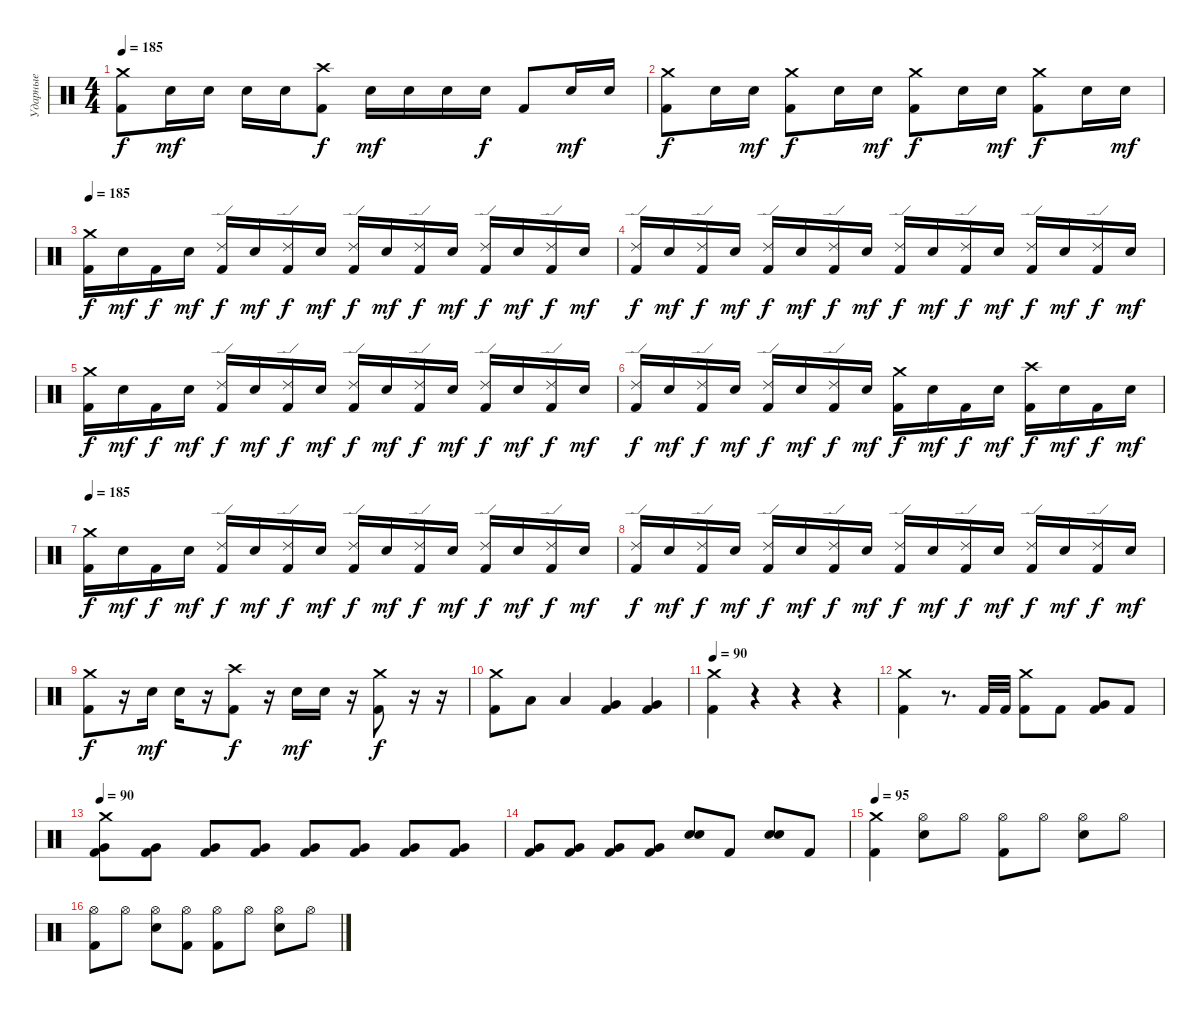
\track ("Ударные" "Ударные") {instrument percussion}
\staff {score}
\articulation defaults
\ts (4 4)
\tempo 185
\clef neutral
\ks c
("Crash medium (hit)" "Kick (hit) 2").8{dy f} "Electric Snare (hit)".16{dy mf} "Electric Snare (hit)".16 "Electric Snare (hit)".16 "Electric Snare (hit)".16 ("Crash high (hit)" "Kick (hit) 2").8{dy f} "Electric Snare (hit)".16{dy mf} "Electric Snare (hit)".16 "Electric Snare (hit)".16 "Electric Snare (hit)".16{dy f} "Kick (hit) 2".8 "Electric Snare (hit)".16{dy mf} "Electric Snare (hit)".16 |
("Crash medium (hit)" "Kick (hit) 2").8{dy f} "Electric Snare (hit)".16 "Electric Snare (hit)".16{dy mf} ("Crash medium (hit)" "Kick (hit) 2").8{dy f} "Electric Snare (hit)".16 "Electric Snare (hit)".16{dy mf} ("Crash medium (hit)" "Kick (hit) 2").8{dy f} "Electric Snare (hit)".16 "Electric Snare (hit)".16{dy mf} ("Crash medium (hit)" "Kick (hit) 2").8{dy f} "Electric Snare (hit)".16 "Electric Snare (hit)".16{dy mf} |
\tempo 185
("Crash medium (hit)" "Kick (hit) 2").16{dy f} "Electric Snare (hit)".16{dy mf} "Kick (hit) 2".16{dy f} "Electric Snare (hit)".16{dy mf} ("Ride (edge) 2" "Kick (hit) 2").16{dy f} "Electric Snare (hit)".16{dy mf} ("Ride (edge) 2" "Kick (hit) 2").16{dy f} "Electric Snare (hit)".16{dy mf} ("Ride (edge) 2" "Kick (hit) 2").16{dy f} "Electric Snare (hit)".16{dy mf} ("Ride (edge) 2" "Kick (hit) 2").16{dy f} "Electric Snare (hit)".16{dy mf} ("Ride (edge) 2" "Kick (hit) 2").16{dy f} "Electric Snare (hit)".16{dy mf} ("Ride (edge) 2" "Kick (hit) 2").16{dy f} "Electric Snare (hit)".16{dy mf} |
("Ride (edge) 2" "Kick (hit) 2").16{dy f} "Electric Snare (hit)".16{dy mf} ("Ride (edge) 2" "Kick (hit) 2").16{dy f} "Electric Snare (hit)".16{dy mf} ("Ride (edge) 2" "Kick (hit) 2").16{dy f} "Electric Snare (hit)".16{dy mf} ("Ride (edge) 2" "Kick (hit) 2").16{dy f} "Electric Snare (hit)".16{dy mf} ("Ride (edge) 2" "Kick (hit) 2").16{dy f} "Electric Snare (hit)".16{dy mf} ("Ride (edge) 2" "Kick (hit) 2").16{dy f} "Electric Snare (hit)".16{dy mf} ("Ride (edge) 2" "Kick (hit) 2").16{dy f} "Electric Snare (hit)".16{dy mf} ("Ride (edge) 2" "Kick (hit) 2").16{dy f} "Electric Snare (hit)".16{dy mf} |
("Crash medium (hit)" "Kick (hit) 2").16{dy f} "Electric Snare (hit)".16{dy mf} "Kick (hit) 2".16{dy f} "Electric Snare (hit)".16{dy mf} ("Ride (edge) 2" "Kick (hit) 2").16{dy f} "Electric Snare (hit)".16{dy mf} ("Ride (edge) 2" "Kick (hit) 2").16{dy f} "Electric Snare (hit)".16{dy mf} ("Ride (edge) 2" "Kick (hit) 2").16{dy f} "Electric Snare (hit)".16{dy mf} ("Ride (edge) 2" "Kick (hit) 2").16{dy f} "Electric Snare (hit)".16{dy mf} ("Ride (edge) 2" "Kick (hit) 2").16{dy f} "Electric Snare (hit)".16{dy mf} ("Ride (edge) 2" "Kick (hit) 2").16{dy f} "Electric Snare (hit)".16{dy mf} |
("Ride (edge) 2" "Kick (hit) 2").16{dy f} "Electric Snare (hit)".16{dy mf} ("Ride (edge) 2" "Kick (hit) 2").16{dy f} "Electric Snare (hit)".16{dy mf} ("Ride (edge) 2" "Kick (hit) 2").16{dy f} "Electric Snare (hit)".16{dy mf} ("Ride (edge) 2" "Kick (hit) 2").16{dy f} "Electric Snare (hit)".16{dy mf} ("Crash medium (hit)" "Kick (hit) 2").16{dy f} "Electric Snare (hit)".16{dy mf} "Kick (hit) 2".16{dy f} "Electric Snare (hit)".16{dy mf} ("Crash high (hit)" "Kick (hit) 2").16{dy f} "Electric Snare (hit)".16{dy mf} "Kick (hit) 2".16{dy f} "Electric Snare (hit)".16{dy mf} |
\tempo 185
("Crash medium (hit)" "Kick (hit) 2").16{dy f} "Electric Snare (hit)".16{dy mf} "Kick (hit) 2".16{dy f} "Electric Snare (hit)".16{dy mf} ("Ride (edge) 2" "Kick (hit) 2").16{dy f} "Electric Snare (hit)".16{dy mf} ("Ride (edge) 2" "Kick (hit) 2").16{dy f} "Electric Snare (hit)".16{dy mf} ("Ride (edge) 2" "Kick (hit) 2").16{dy f} "Electric Snare (hit)".16{dy mf} ("Ride (edge) 2" "Kick (hit) 2").16{dy f} "Electric Snare (hit)".16{dy mf} ("Ride (edge) 2" "Kick (hit) 2").16{dy f} "Electric Snare (hit)".16{dy mf} ("Ride (edge) 2" "Kick (hit) 2").16{dy f} "Electric Snare (hit)".16{dy mf} |
("Ride (edge) 2" "Kick (hit) 2").16{dy f} "Electric Snare (hit)".16{dy mf} ("Ride (edge) 2" "Kick (hit) 2").16{dy f} "Electric Snare (hit)".16{dy mf} ("Ride (edge) 2" "Kick (hit) 2").16{dy f} "Electric Snare (hit)".16{dy mf} ("Ride (edge) 2" "Kick (hit) 2").16{dy f} "Electric Snare (hit)".16{dy mf} ("Ride (edge) 2" "Kick (hit) 2").16{dy f} "Electric Snare (hit)".16{dy mf} ("Ride (edge) 2" "Kick (hit) 2").16{dy f} "Electric Snare (hit)".16{dy mf} ("Ride (edge) 2" "Kick (hit) 2").16{dy f} "Electric Snare (hit)".16{dy mf} ("Ride (edge) 2" "Kick (hit) 2").16{dy f} "Electric Snare (hit)".16{dy mf} |
("Crash medium (hit)" "Kick (hit) 2").8{dy f} r.16 "Electric Snare (hit)".16{dy mf} "Electric Snare (hit)".16 r.16 ("Crash high (hit)" "Kick (hit) 2").8{dy f} r.16 "Electric Snare (hit)".16{dy mf} "Electric Snare (hit)".16 r.16 ("Crash medium (hit)" "Kick (hit) 2").8{dy f} r.16 r.16 |
("Crash medium (hit)" "Kick (hit) 2").8 "Low Tom (hit)".8 "Low Tom (hit)".4 ("Very Low Tom (hit)" "Kick (hit) 2").4 ("Very Low Tom (hit)" "Kick (hit) 2").4 |
\tempo 90
("Crash medium (hit)" "Kick (hit) 2").4 r.4 r.4 r.4 |
("Crash medium (hit)" "Kick (hit) 2").4 r.8{d} "Kick (hit) 2".32 "Kick (hit) 2".32 ("Crash medium (hit)" "Kick (hit) 2").8 "Kick (hit) 2".8 ("Very Low Tom (hit)" "Kick (hit) 2").8 "Kick (hit) 2".8 |
\tempo 90
("Crash medium (hit)" "Very Low Tom (hit)" "Kick (hit) 2").8 ("Very Low Tom (hit)" "Kick (hit) 2").8 ("Very Low Tom (hit)" "Kick (hit) 2").8 ("Very Low Tom (hit)" "Kick (hit) 2").8 ("Very Low Tom (hit)" "Kick (hit) 2").8 ("Very Low Tom (hit)" "Kick (hit) 2").8 ("Very Low Tom (hit)" "Kick (hit) 2").8 ("Very Low Tom (hit)" "Kick (hit) 2").8 |
("Very Low Tom (hit)" "Kick (hit) 2").8 ("Very Low Tom (hit)" "Kick (hit) 2").8 ("Very Low Tom (hit)" "Kick (hit) 2").8 ("Very Low Tom (hit)" "Kick (hit) 2").8 ("Electric Snare (hit)" "Electric Snare (hit)").8{bd 480} "Kick (hit) 2".8 ("Electric Snare (hit)" "Electric Snare (hit)").8{bd 480} "Kick (hit) 2".8 |
\tempo 95
("Crash medium (hit)" "Kick (hit) 2").4 ("Hi-Hat (open)" "Electric Snare (hit)").8 "Hi-Hat (open)".8 ("Hi-Hat (open)" "Kick (hit) 2").8 "Hi-Hat (open)".8 ("Hi-Hat (open)" "Electric Snare (hit)").8 "Hi-Hat (open)".8 |
("Hi-Hat (open)" "Kick (hit) 2").8 "Hi-Hat (open)".8 ("Hi-Hat (open)" "Electric Snare (hit)").8 ("Hi-Hat (open)" "Kick (hit) 2").8 ("Hi-Hat (open)" "Kick (hit) 2").8 "Hi-Hat (open)".8 ("Hi-Hat (open)" "Electric Snare (hit)").8 "Hi-Hat (open)".8
